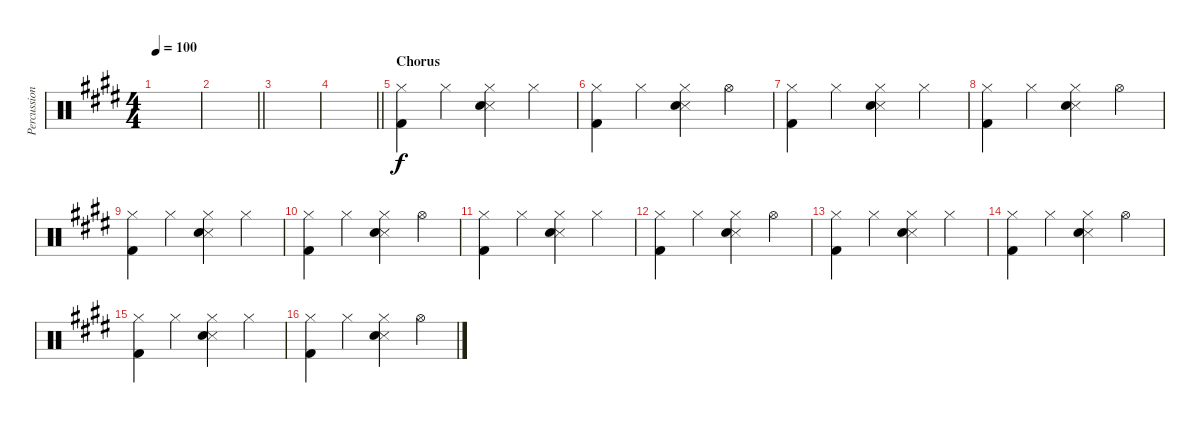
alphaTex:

\track ("Percussion" "Percussion") {instrument percussion}
\staff {score}
\articulation defaults
\ts (4 4)
\tempo 100
\clef neutral
\ks e
|
\barLineRight lightlight
|
|
\barLineRight lightlight
|
\section ("" "Chorus")
("Hi-Hat (closed)" "Kick (hit) 2").4 "Hi-Hat (closed)".4 ("Hi-Hat (closed)" "Snare (side stick) 3" "Snare (hit) 2").4 "Hi-Hat (closed)".4 |
("Hi-Hat (closed)" "Kick (hit) 2").4 "Hi-Hat (closed)".4 ("Hi-Hat (closed)" "Snare (side stick) 3" "Snare (hit) 2").4 "Hi-Hat (open)".4 |
("Hi-Hat (closed)" "Kick (hit) 2").4 "Hi-Hat (closed)".4 ("Hi-Hat (closed)" "Snare (side stick) 3" "Snare (hit) 2").4 "Hi-Hat (closed)".4 |
("Hi-Hat (closed)" "Kick (hit) 2").4 "Hi-Hat (closed)".4 ("Hi-Hat (closed)" "Snare (side stick) 3" "Snare (hit) 2").4 "Hi-Hat (open)".4 |
("Hi-Hat (closed)" "Kick (hit) 2").4 "Hi-Hat (closed)".4 ("Hi-Hat (closed)" "Snare (side stick) 3" "Snare (hit) 2").4 "Hi-Hat (closed)".4 |
("Hi-Hat (closed)" "Kick (hit) 2").4 "Hi-Hat (closed)".4 ("Hi-Hat (closed)" "Snare (side stick) 3" "Snare (hit) 2").4 "Hi-Hat (open)".4 |
("Hi-Hat (closed)" "Kick (hit) 2").4 "Hi-Hat (closed)".4 ("Hi-Hat (closed)" "Snare (side stick) 3" "Snare (hit) 2").4 "Hi-Hat (closed)".4 |
("Hi-Hat (closed)" "Kick (hit) 2").4 "Hi-Hat (closed)".4 ("Hi-Hat (closed)" "Snare (side stick) 3" "Snare (hit) 2").4 "Hi-Hat (open)".4 |
("Hi-Hat (closed)" "Kick (hit) 2").4 "Hi-Hat (closed)".4 ("Hi-Hat (closed)" "Snare (side stick) 3" "Snare (hit) 2").4 "Hi-Hat (closed)".4 |
("Hi-Hat (closed)" "Kick (hit) 2").4 "Hi-Hat (closed)".4 ("Hi-Hat (closed)" "Snare (side stick) 3" "Snare (hit) 2").4 "Hi-Hat (open)".4 |
("Hi-Hat (closed)" "Kick (hit) 2").4 "Hi-Hat (closed)".4 ("Hi-Hat (closed)" "Snare (side stick) 3" "Snare (hit) 2").4 "Hi-Hat (closed)".4 |
("Hi-Hat (closed)" "Kick (hit) 2").4 "Hi-Hat (closed)".4 ("Hi-Hat (closed)" "Snare (side stick) 3" "Snare (hit) 2").4 "Hi-Hat (open)".4
